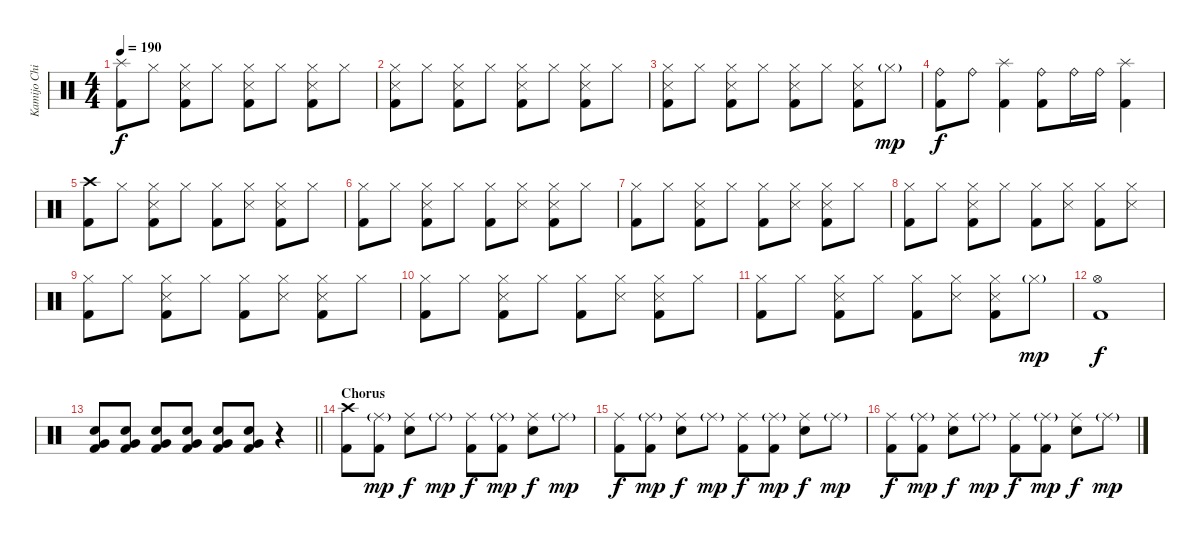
\track ("Kamijo Chihiro" "Kamijo Chi") {instrument percussion}
\staff {score}
\articulation defaults
\ts (4 4)
\tempo 190
\clef neutral
\ks c
("Splash (hit)" "Kick (hit) 2").8{dy f} "Hi-Hat (closed)".8 ("Hi-Hat (closed)" "Snare (side stick) 3" "Kick (hit) 2").8 "Hi-Hat (closed)".8 ("Hi-Hat (closed)" "Snare (side stick) 3" "Kick (hit) 2").8 "Hi-Hat (closed)".8 ("Hi-Hat (closed)" "Snare (side stick) 3" "Kick (hit) 2").8 "Hi-Hat (closed)".8 |
("Hi-Hat (closed)" "Snare (side stick) 3" "Kick (hit) 2").8 "Hi-Hat (closed)".8 ("Hi-Hat (closed)" "Snare (side stick) 3" "Kick (hit) 2").8 "Hi-Hat (closed)".8 ("Hi-Hat (closed)" "Snare (side stick) 3" "Kick (hit) 2").8 "Hi-Hat (closed)".8 ("Hi-Hat (closed)" "Snare (side stick) 3" "Kick (hit) 2").8 "Hi-Hat (closed)".8 |
("Hi-Hat (closed)" "Snare (side stick) 3" "Kick (hit) 2").8 "Hi-Hat (closed)".8 ("Hi-Hat (closed)" "Snare (side stick) 3" "Kick (hit) 2").8 "Hi-Hat (closed)".8 ("Hi-Hat (closed)" "Snare (side stick) 3" "Kick (hit) 2").8 "Hi-Hat (closed)".8 ("Hi-Hat (closed)" "Snare (side stick) 3" "Kick (hit) 2").8 "Hi-Hat (closed)"{g}.8{dy mp} |
("Ride (bell)" "Kick (hit) 2").8{dy f} "Ride (bell)".8 ("Splash (hit)" "Kick (hit) 2").4 ("Ride (bell)" "Kick (hit) 2").8 "Ride (bell)".16 "Ride (bell)".16 ("Splash (hit)" "Kick (hit) 2").4 |
("Crash high (hit)" "Kick (hit) 2").8 "Hi-Hat (closed)".8 ("Hi-Hat (closed)" "Snare (side stick) 3" "Kick (hit) 2").8 "Hi-Hat (closed)".8 ("Hi-Hat (closed)" "Kick (hit) 2").8 ("Hi-Hat (closed)" "Snare (side stick) 3").8 ("Hi-Hat (closed)" "Snare (side stick) 3" "Kick (hit) 2").8 "Hi-Hat (closed)".8 |
("Hi-Hat (closed)" "Kick (hit) 2").8 "Hi-Hat (closed)".8 ("Hi-Hat (closed)" "Snare (side stick) 3" "Kick (hit) 2").8 "Hi-Hat (closed)".8 ("Hi-Hat (closed)" "Kick (hit) 2").8 ("Hi-Hat (closed)" "Snare (side stick) 3").8 ("Hi-Hat (closed)" "Snare (side stick) 3" "Kick (hit) 2").8 "Hi-Hat (closed)".8 |
("Hi-Hat (closed)" "Kick (hit) 2").8 "Hi-Hat (closed)".8 ("Hi-Hat (closed)" "Snare (side stick) 3" "Kick (hit) 2").8 "Hi-Hat (closed)".8 ("Hi-Hat (closed)" "Kick (hit) 2").8 ("Hi-Hat (closed)" "Snare (side stick) 3").8 ("Hi-Hat (closed)" "Snare (side stick) 3" "Kick (hit) 2").8 "Hi-Hat (closed)".8 |
("Hi-Hat (closed)" "Kick (hit) 2").8 "Hi-Hat (closed)".8 ("Hi-Hat (closed)" "Snare (side stick) 3" "Kick (hit) 2").8 "Hi-Hat (closed)".8 ("Hi-Hat (closed)" "Kick (hit) 2").8 ("Hi-Hat (closed)" "Snare (side stick) 3").8 ("Hi-Hat (closed)" "Kick (hit) 2").8 ("Hi-Hat (closed)" "Snare (side stick) 3").8 |
("Hi-Hat (closed)" "Kick (hit) 2").8 "Hi-Hat (closed)".8 ("Hi-Hat (closed)" "Snare (side stick) 3" "Kick (hit) 2").8 "Hi-Hat (closed)".8 ("Hi-Hat (closed)" "Kick (hit) 2").8 ("Hi-Hat (closed)" "Snare (side stick) 3").8 ("Hi-Hat (closed)" "Snare (side stick) 3" "Kick (hit) 2").8 "Hi-Hat (closed)".8 |
("Hi-Hat (closed)" "Kick (hit) 2").8 "Hi-Hat (closed)".8 ("Hi-Hat (closed)" "Snare (side stick) 3" "Kick (hit) 2").8 "Hi-Hat (closed)".8 ("Hi-Hat (closed)" "Kick (hit) 2").8 ("Hi-Hat (closed)" "Snare (side stick) 3").8 ("Hi-Hat (closed)" "Snare (side stick) 3" "Kick (hit) 2").8 "Hi-Hat (closed)".8 |
("Hi-Hat (closed)" "Kick (hit) 2").8 "Hi-Hat (closed)".8 ("Hi-Hat (closed)" "Snare (side stick) 3" "Kick (hit) 2").8 "Hi-Hat (closed)".8 ("Hi-Hat (closed)" "Kick (hit) 2").8 ("Hi-Hat (closed)" "Snare (side stick) 3").8 ("Hi-Hat (closed)" "Snare (side stick) 3" "Kick (hit) 2").8 "Hi-Hat (closed)"{g}.8{dy mp} |
("Hi-Hat (open)" "Kick (hit) 2").1{dy f} |
\barLineRight lightlight
("Snare (hit) 2" "Very Low Tom (hit)" "Kick (hit) 2").8 ("Snare (hit) 2" "Very Low Tom (hit)" "Kick (hit) 2").8 ("Snare (hit) 2" "Very Low Tom (hit)" "Kick (hit) 2").8 ("Snare (hit) 2" "Very Low Tom (hit)" "Kick (hit) 2").8 ("Snare (hit) 2" "Very Low Tom (hit)" "Kick (hit) 2").8 ("Snare (hit) 2" "Very Low Tom (hit)" "Kick (hit) 2").8 r.4 |
\section ("" "Chorus")
("Crash high (hit)" "Kick (hit) 2").8 ("Ride (middle)"{g} "Kick (hit) 2").8{dy mp} ("Ride (middle)" "Snare (hit) 2").8{dy f} "Ride (middle)"{g}.8{dy mp} ("Ride (middle)" "Kick (hit) 2").8{dy f} ("Ride (middle)"{g} "Kick (hit) 2").8{dy mp} ("Ride (middle)" "Snare (hit) 2").8{dy f} "Ride (middle)"{g}.8{dy mp} |
("Ride (middle)" "Kick (hit) 2").8{dy f} ("Ride (middle)"{g} "Kick (hit) 2").8{dy mp} ("Ride (middle)" "Snare (hit) 2").8{dy f} "Ride (middle)"{g}.8{dy mp} ("Ride (middle)" "Kick (hit) 2").8{dy f} ("Ride (middle)"{g} "Kick (hit) 2").8{dy mp} ("Ride (middle)" "Snare (hit) 2").8{dy f} "Ride (middle)"{g}.8{dy mp} |
("Ride (middle)" "Kick (hit) 2").8{dy f} ("Ride (middle)"{g} "Kick (hit) 2").8{dy mp} ("Ride (middle)" "Snare (hit) 2").8{dy f} "Ride (middle)"{g}.8{dy mp} ("Ride (middle)" "Kick (hit) 2").8{dy f} ("Ride (middle)"{g} "Kick (hit) 2").8{dy mp} ("Ride (middle)" "Snare (hit) 2").8{dy f} "Ride (middle)"{g}.8{dy mp}
